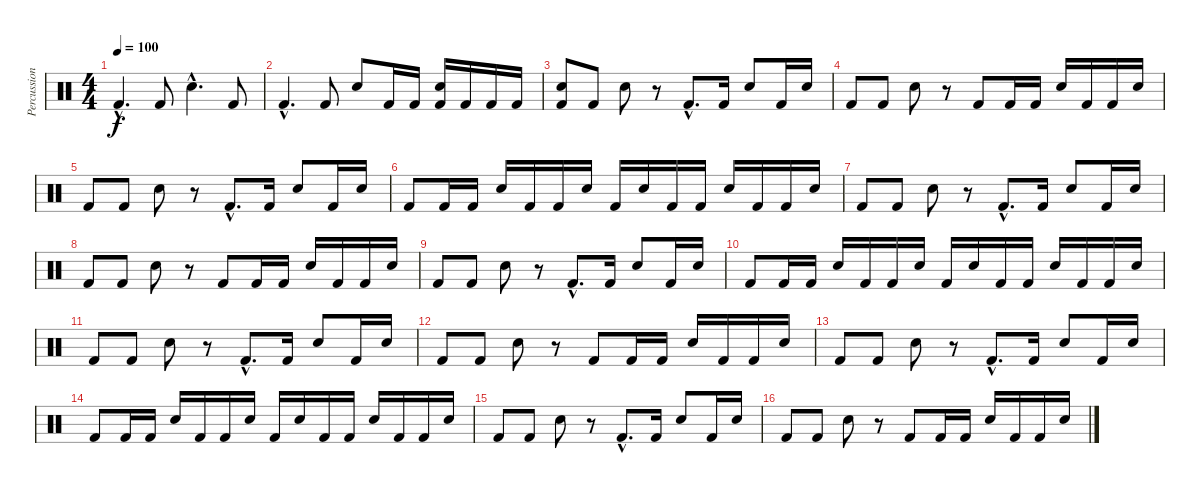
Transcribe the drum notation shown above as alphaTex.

\track ("Percussioni" "Percussion") {instrument percussion}
\staff {score}
\articulation defaults
\ts (4 4)
\tempo 100
\clef neutral
\ks c "Kick (hit) 2"{hac}.4{d dy f} "Kick (hit) 2".8 "Snare (hit) 2"{hac}.4{d} "Kick (hit) 2".8
|
"Kick (hit) 2"{hac}.4{d} "Kick (hit) 2".8 "Snare (hit) 2".8 "Kick (hit) 2".16 "Kick (hit) 2".16 ("Snare (hit) 2" "Kick (hit) 2").16 "Kick (hit) 2".16 "Kick (hit) 2".16 "Kick (hit) 2".16 |
("Snare (hit) 2" "Kick (hit) 2").8 "Kick (hit) 2".8 "Snare (hit) 2".8 r.8 "Kick (hit) 2"{hac}.8{d} "Kick (hit) 2".16 "Snare (hit) 2".8 "Kick (hit) 2".16 "Snare (hit) 2".16 |
"Kick (hit) 2".8 "Kick (hit) 2".8 "Snare (hit) 2".8 r.8 "Kick (hit) 2".8 "Kick (hit) 2".16 "Kick (hit) 2".16 "Snare (hit) 2".16 "Kick (hit) 2".16 "Kick (hit) 2".16 "Snare (hit) 2".16 |
"Kick (hit) 2".8 "Kick (hit) 2".8 "Snare (hit) 2".8 r.8 "Kick (hit) 2"{hac}.8{d} "Kick (hit) 2".16 "Snare (hit) 2".8 "Kick (hit) 2".16 "Snare (hit) 2".16 |
"Kick (hit) 2".8 "Kick (hit) 2".16 "Kick (hit) 2".16 "Snare (hit) 2".16 "Kick (hit) 2".16 "Kick (hit) 2".16 "Snare (hit) 2".16 "Kick (hit) 2".16 "Snare (hit) 2".16 "Kick (hit) 2".16 "Kick (hit) 2".16 "Snare (hit) 2".16 "Kick (hit) 2".16 "Kick (hit) 2".16 "Snare (hit) 2".16 |
"Kick (hit) 2".8 "Kick (hit) 2".8 "Snare (hit) 2".8 r.8 "Kick (hit) 2"{hac}.8{d} "Kick (hit) 2".16 "Snare (hit) 2".8 "Kick (hit) 2".16 "Snare (hit) 2".16 |
"Kick (hit) 2".8 "Kick (hit) 2".8 "Snare (hit) 2".8 r.8 "Kick (hit) 2".8 "Kick (hit) 2".16 "Kick (hit) 2".16 "Snare (hit) 2".16 "Kick (hit) 2".16 "Kick (hit) 2".16 "Snare (hit) 2".16 |
"Kick (hit) 2".8 "Kick (hit) 2".8 "Snare (hit) 2".8 r.8 "Kick (hit) 2"{hac}.8{d} "Kick (hit) 2".16 "Snare (hit) 2".8 "Kick (hit) 2".16 "Snare (hit) 2".16 |
"Kick (hit) 2".8 "Kick (hit) 2".16 "Kick (hit) 2".16 "Snare (hit) 2".16 "Kick (hit) 2".16 "Kick (hit) 2".16 "Snare (hit) 2".16 "Kick (hit) 2".16 "Snare (hit) 2".16 "Kick (hit) 2".16 "Kick (hit) 2".16 "Snare (hit) 2".16 "Kick (hit) 2".16 "Kick (hit) 2".16 "Snare (hit) 2".16 |
"Kick (hit) 2".8 "Kick (hit) 2".8 "Snare (hit) 2".8 r.8 "Kick (hit) 2"{hac}.8{d} "Kick (hit) 2".16 "Snare (hit) 2".8 "Kick (hit) 2".16 "Snare (hit) 2".16 |
"Kick (hit) 2".8 "Kick (hit) 2".8 "Snare (hit) 2".8 r.8 "Kick (hit) 2".8 "Kick (hit) 2".16 "Kick (hit) 2".16 "Snare (hit) 2".16 "Kick (hit) 2".16 "Kick (hit) 2".16 "Snare (hit) 2".16 |
"Kick (hit) 2".8 "Kick (hit) 2".8 "Snare (hit) 2".8 r.8 "Kick (hit) 2"{hac}.8{d} "Kick (hit) 2".16 "Snare (hit) 2".8 "Kick (hit) 2".16 "Snare (hit) 2".16 |
"Kick (hit) 2".8 "Kick (hit) 2".16 "Kick (hit) 2".16 "Snare (hit) 2".16 "Kick (hit) 2".16 "Kick (hit) 2".16 "Snare (hit) 2".16 "Kick (hit) 2".16 "Snare (hit) 2".16 "Kick (hit) 2".16 "Kick (hit) 2".16 "Snare (hit) 2".16 "Kick (hit) 2".16 "Kick (hit) 2".16 "Snare (hit) 2".16 |
"Kick (hit) 2".8 "Kick (hit) 2".8 "Snare (hit) 2".8 r.8 "Kick (hit) 2"{hac}.8{d} "Kick (hit) 2".16 "Snare (hit) 2".8 "Kick (hit) 2".16 "Snare (hit) 2".16 |
"Kick (hit) 2".8 "Kick (hit) 2".8 "Snare (hit) 2".8 r.8 "Kick (hit) 2".8 "Kick (hit) 2".16 "Kick (hit) 2".16 "Snare (hit) 2".16 "Kick (hit) 2".16 "Kick (hit) 2".16 "Snare (hit) 2".16
